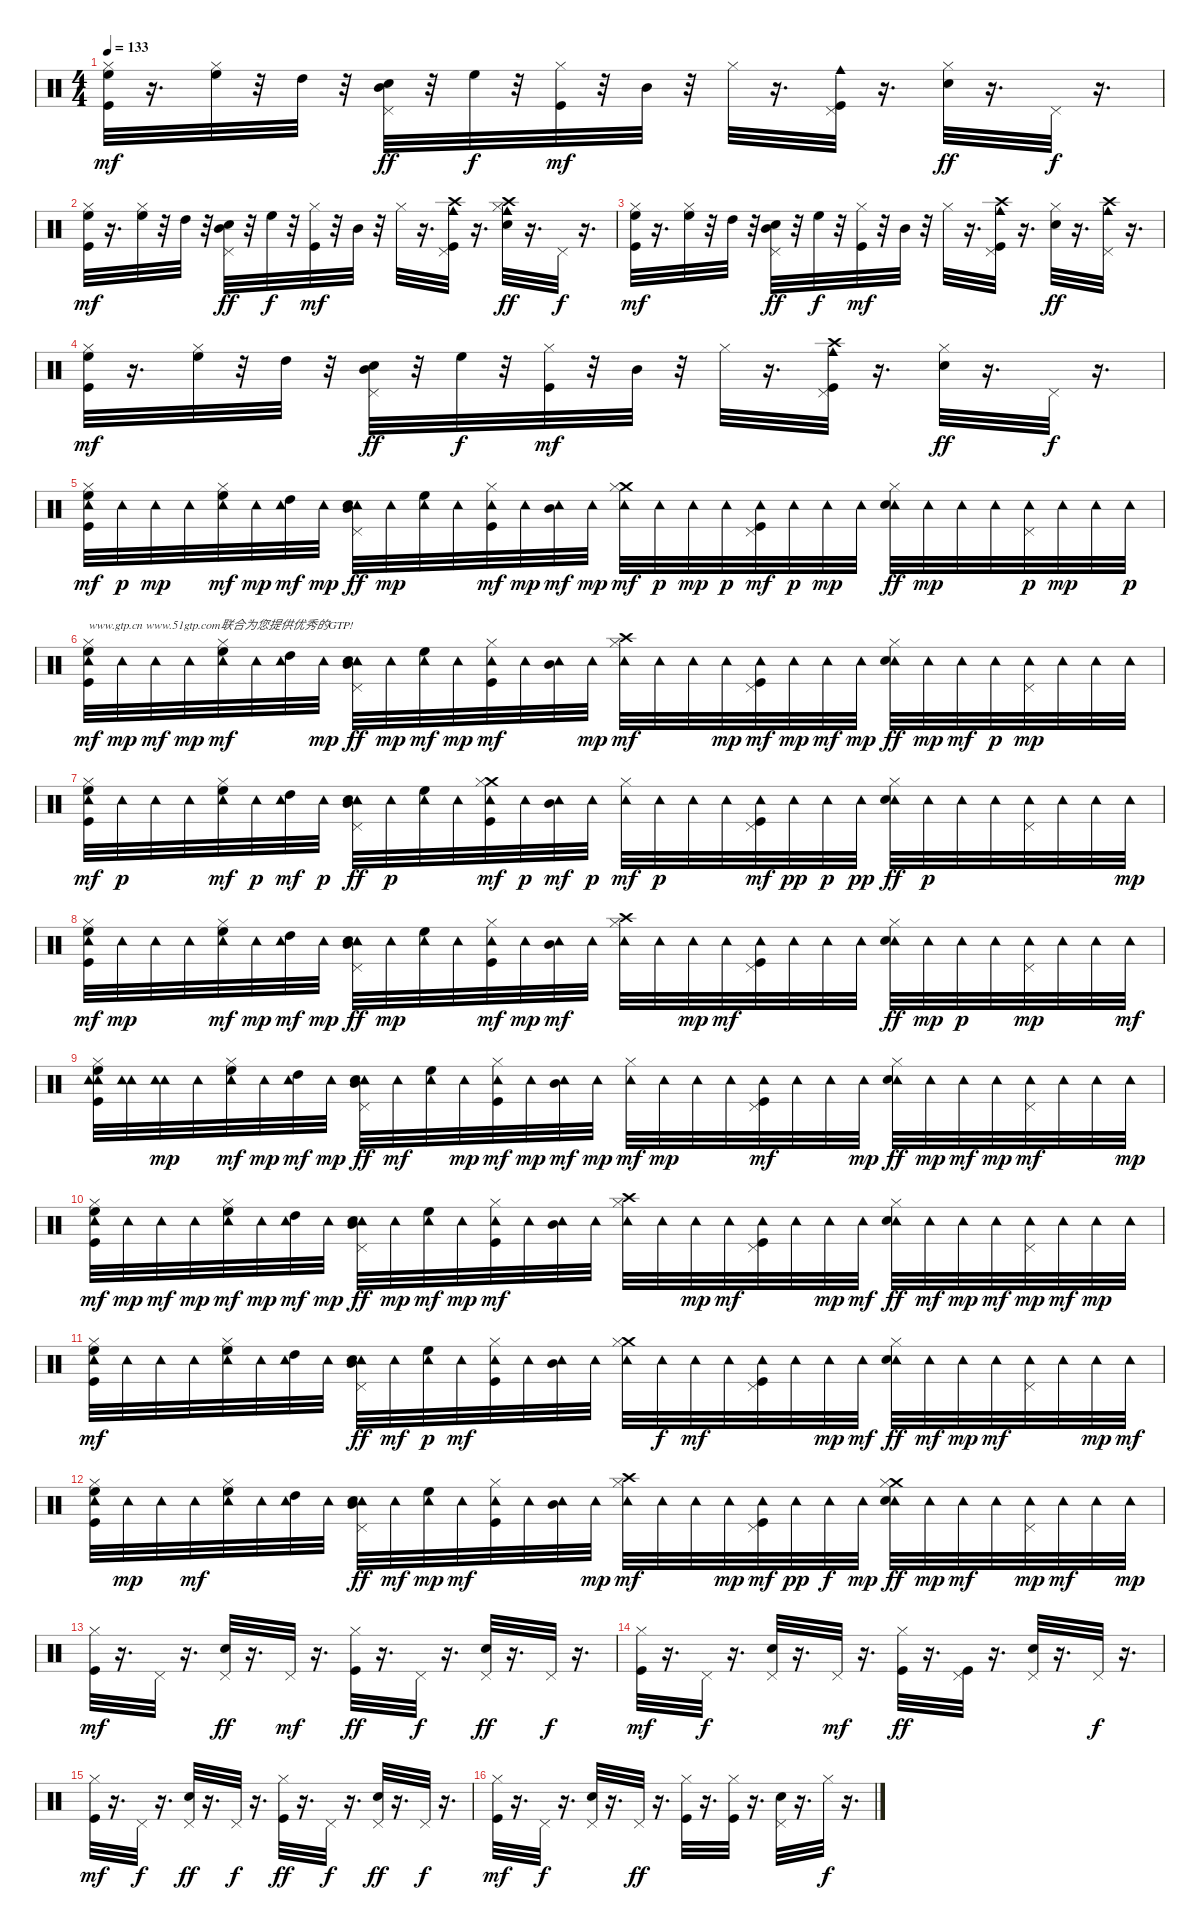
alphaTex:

\track "" {instrument percussion}
\staff {score}
\articulation defaults
\ts (4 4)
\tempo 133
\clef neutral
\ks c
("High Floor Tom (hit)" "Hi-Hat (closed)" "Kick (hit)").32{dy mf} r.16{d} ("High Floor Tom (hit)" "Hi-Hat (closed)").32 r.32 "High Tom (hit)".32 r.32 ("Mid Tom (hit)" "Pedal Hi-Hat (hit)" "Snare (hit) 2").32{dy ff} r.32 "High Floor Tom (hit)".32{dy f} r.32 ("Hi-Hat (closed)" "Kick (hit)").32{dy mf} r.32 "Mid Tom (hit)".32 r.32 "Hi-Hat (closed)".32 r.16{d} ("Cowbell medium (hit)" "Kick (hit)" "Pedal Hi-Hat (hit)").32 r.16{d} ("Hi-Hat (closed)" "Snare (hit) 2").32{dy ff} r.16{d} "Pedal Hi-Hat (hit)".32{dy f} r.16{d} |
("High Floor Tom (hit)" "Hi-Hat (closed)" "Kick (hit)").32{dy mf} r.16{d} ("High Floor Tom (hit)" "Hi-Hat (closed)").32 r.32 "High Tom (hit)".32 r.32 ("Mid Tom (hit)" "Pedal Hi-Hat (hit)" "Snare (hit) 2").32{dy ff} r.32 "High Floor Tom (hit)".32{dy f} r.32 ("Hi-Hat (closed)" "Kick (hit)").32{dy mf} r.32 "Mid Tom (hit)".32 r.32 "Hi-Hat (closed)".32 r.16{d} ("Cowbell medium (hit)" "Crash high (hit)" "Kick (hit)" "Pedal Hi-Hat (hit)").32 r.16{d} ("Crash high (hit)" "Cowbell medium (hit)" "Hi-Hat (closed)" "Snare (hit) 2").32{dy ff} r.16{d} "Pedal Hi-Hat (hit)".32{dy f} r.16{d} |
("High Floor Tom (hit)" "Hi-Hat (closed)" "Kick (hit)").32{dy mf} r.16{d} ("High Floor Tom (hit)" "Hi-Hat (closed)").32 r.32 "High Tom (hit)".32 r.32 ("Mid Tom (hit)" "Pedal Hi-Hat (hit)" "Snare (hit) 2").32{dy ff} r.32 "High Floor Tom (hit)".32{dy f} r.32 ("Hi-Hat (closed)" "Kick (hit)").32{dy mf} r.32 "Mid Tom (hit)".32 r.32 "Hi-Hat (closed)".32 r.16{d} ("Cowbell medium (hit)" "Crash high (hit)" "Kick (hit)" "Pedal Hi-Hat (hit)").32 r.16{d} ("Hi-Hat (closed)" "Snare (hit) 2").32{dy ff} r.16{d} ("Crash high (hit)" "Cowbell medium (hit)" "Pedal Hi-Hat (hit)").32 r.16{d} |
("High Floor Tom (hit)" "Hi-Hat (closed)" "Kick (hit)").32{dy mf} r.16{d} ("High Floor Tom (hit)" "Hi-Hat (closed)").32 r.32 "High Tom (hit)".32 r.32 ("Mid Tom (hit)" "Pedal Hi-Hat (hit)" "Snare (hit) 2").32{dy ff} r.32 "High Floor Tom (hit)".32{dy f} r.32 ("Hi-Hat (closed)" "Kick (hit)").32{dy mf} r.32 "Mid Tom (hit)".32 r.32 "Hi-Hat (closed)".32 r.16{d} ("Cowbell medium (hit)" "Crash high (hit)" "Kick (hit)" "Pedal Hi-Hat (hit)").32 r.16{d} ("Hi-Hat (closed)" "Snare (hit) 2").32{dy ff} r.16{d} "Pedal Hi-Hat (hit)".32{dy f} r.16{d} |
("Tambourine (hit)" "High Floor Tom (hit)" "Hi-Hat (closed)" "Kick (hit)").32{dy mf} "Tambourine (hit)".32{dy p} "Tambourine (hit)".32{dy mp} "Tambourine (hit)".32 ("Tambourine (hit)" "High Floor Tom (hit)" "Hi-Hat (closed)").32{dy mf} "Tambourine (hit)".32{dy mp} ("Tambourine (hit)" "High Tom (hit)").32{dy mf} "Tambourine (hit)".32{dy mp} ("Tambourine (hit)" "Mid Tom (hit)" "Pedal Hi-Hat (hit)" "Snare (hit) 2").32{dy ff} "Tambourine (hit)".32{dy mp} ("Tambourine (hit)" "High Floor Tom (hit)").32 "Tambourine (hit)".32 ("Tambourine (hit)" "Hi-Hat (closed)" "Kick (hit)").32{dy mf} "Tambourine (hit)".32{dy mp} ("Tambourine (hit)" "Mid Tom (hit)").32{dy mf} "Tambourine (hit)".32{dy mp} ("Tambourine (hit)" "Crash medium (hit)" "Hi-Hat (closed)").32{dy mf} "Tambourine (hit)".32{dy p} "Tambourine (hit)".32{dy mp} "Tambourine (hit)".32{dy p} ("Tambourine (hit)" "Kick (hit)" "Pedal Hi-Hat (hit)").32{dy mf} "Tambourine (hit)".32{dy p} "Tambourine (hit)".32{dy mp} "Tambourine (hit)".32 ("Tambourine (hit)" "Hi-Hat (closed)" "Snare (hit) 2").32{dy ff} "Tambourine (hit)".32{dy mp} "Tambourine (hit)".32 "Tambourine (hit)".32 ("Tambourine (hit)" "Pedal Hi-Hat (hit)").32{dy p} "Tambourine (hit)".32{dy mp} "Tambourine (hit)".32 "Tambourine (hit)".32{dy p} |
("Tambourine (hit)" "High Floor Tom (hit)" "Hi-Hat (closed)" "Kick (hit)").32{txt "www.gtp.cn www.51gtp.com联合为您提供优秀的GTP!" dy mf} "Tambourine (hit)".32{dy mp} "Tambourine (hit)".32{dy mf} "Tambourine (hit)".32{dy mp} ("Tambourine (hit)" "High Floor Tom (hit)" "Hi-Hat (closed)").32{dy mf} "Tambourine (hit)".32 ("Tambourine (hit)" "High Tom (hit)").32 "Tambourine (hit)".32{dy mp} ("Tambourine (hit)" "Mid Tom (hit)" "Pedal Hi-Hat (hit)" "Snare (hit) 2").32{dy ff} "Tambourine (hit)".32{dy mp} ("Tambourine (hit)" "High Floor Tom (hit)").32{dy mf} "Tambourine (hit)".32{dy mp} ("Tambourine (hit)" "Hi-Hat (closed)" "Kick (hit)").32{dy mf} "Tambourine (hit)".32 ("Tambourine (hit)" "Mid Tom (hit)").32 "Tambourine (hit)".32{dy mp} ("Tambourine (hit)" "Crash high (hit)" "Hi-Hat (closed)").32{dy mf} "Tambourine (hit)".32 "Tambourine (hit)".32 "Tambourine (hit)".32{dy mp} ("Tambourine (hit)" "Kick (hit)" "Pedal Hi-Hat (hit)").32{dy mf} "Tambourine (hit)".32{dy mp} "Tambourine (hit)".32{dy mf} "Tambourine (hit)".32{dy mp} ("Tambourine (hit)" "Hi-Hat (closed)" "Snare (hit) 2").32{dy ff} "Tambourine (hit)".32{dy mp} "Tambourine (hit)".32{dy mf} "Tambourine (hit)".32{dy p} ("Tambourine (hit)" "Pedal Hi-Hat (hit)").32{dy mp} "Tambourine (hit)".32 "Tambourine (hit)".32 "Tambourine (hit)".32 |
("Tambourine (hit)" "High Floor Tom (hit)" "Hi-Hat (closed)" "Kick (hit)").32{dy mf} "Tambourine (hit)".32{dy p} "Tambourine (hit)".32 "Tambourine (hit)".32 ("Tambourine (hit)" "High Floor Tom (hit)" "Hi-Hat (closed)").32{dy mf} "Tambourine (hit)".32{dy p} ("Tambourine (hit)" "High Tom (hit)").32{dy mf} "Tambourine (hit)".32{dy p} ("Tambourine (hit)" "Mid Tom (hit)" "Pedal Hi-Hat (hit)" "Snare (hit) 2").32{dy ff} "Tambourine (hit)".32{dy p} ("Tambourine (hit)" "High Floor Tom (hit)").32 "Tambourine (hit)".32 ("Tambourine (hit)" "Crash medium (hit)" "Hi-Hat (closed)" "Kick (hit)").32{dy mf} "Tambourine (hit)".32{dy p} ("Tambourine (hit)" "Mid Tom (hit)").32{dy mf} "Tambourine (hit)".32{dy p} ("Tambourine (hit)" "Hi-Hat (closed)").32{dy mf} "Tambourine (hit)".32{dy p} "Tambourine (hit)".32 "Tambourine (hit)".32 ("Tambourine (hit)" "Kick (hit)" "Pedal Hi-Hat (hit)").32{dy mf} "Tambourine (hit)".32{dy pp} "Tambourine (hit)".32{dy p} "Tambourine (hit)".32{dy pp} ("Tambourine (hit)" "Hi-Hat (closed)" "Snare (hit) 2").32{dy ff} "Tambourine (hit)".32{dy p} "Tambourine (hit)".32 "Tambourine (hit)".32 ("Tambourine (hit)" "Pedal Hi-Hat (hit)").32 "Tambourine (hit)".32 "Tambourine (hit)".32 "Tambourine (hit)".32{dy mp} |
("Tambourine (hit)" "High Floor Tom (hit)" "Hi-Hat (closed)" "Kick (hit)").32{dy mf} "Tambourine (hit)".32{dy mp} "Tambourine (hit)".32 "Tambourine (hit)".32 ("Tambourine (hit)" "High Floor Tom (hit)" "Hi-Hat (closed)").32{dy mf} "Tambourine (hit)".32{dy mp} ("Tambourine (hit)" "High Tom (hit)").32{dy mf} "Tambourine (hit)".32{dy mp} ("Tambourine (hit)" "Mid Tom (hit)" "Pedal Hi-Hat (hit)" "Snare (hit) 2").32{dy ff} "Tambourine (hit)".32{dy mp} ("Tambourine (hit)" "High Floor Tom (hit)").32 "Tambourine (hit)".32 ("Tambourine (hit)" "Hi-Hat (closed)" "Kick (hit)").32{dy mf} "Tambourine (hit)".32{dy mp} ("Tambourine (hit)" "Mid Tom (hit)").32{dy mf} "Tambourine (hit)".32 ("Tambourine (hit)" "Crash high (hit)" "Hi-Hat (closed)").32 "Tambourine (hit)".32 "Tambourine (hit)".32{dy mp} "Tambourine (hit)".32{dy mf} ("Tambourine (hit)" "Kick (hit)" "Pedal Hi-Hat (hit)").32 "Tambourine (hit)".32 "Tambourine (hit)".32 "Tambourine (hit)".32 ("Tambourine (hit)" "Hi-Hat (closed)" "Snare (hit) 2").32{dy ff} "Tambourine (hit)".32{dy mp} "Tambourine (hit)".32{dy p} "Tambourine (hit)".32 ("Tambourine (hit)" "Pedal Hi-Hat (hit)").32{dy mp} "Tambourine (hit)".32 "Tambourine (hit)".32 "Tambourine (hit)".32{dy mf} |
("Tambourine (hit)" "Tambourine (hit)" "High Floor Tom (hit)" "Hi-Hat (closed)" "Kick (hit)").32 ("Tambourine (hit)" "Tambourine (hit)").32 ("Tambourine (hit)" "Tambourine (hit)").32{dy mp} "Tambourine (hit)".32 ("Tambourine (hit)" "High Floor Tom (hit)" "Hi-Hat (closed)").32{dy mf} "Tambourine (hit)".32{dy mp} ("Tambourine (hit)" "High Tom (hit)").32{dy mf} "Tambourine (hit)".32{dy mp} ("Tambourine (hit)" "Mid Tom (hit)" "Pedal Hi-Hat (hit)" "Snare (hit) 2").32{dy ff} "Tambourine (hit)".32{dy mf} ("Tambourine (hit)" "High Floor Tom (hit)").32 "Tambourine (hit)".32{dy mp} ("Tambourine (hit)" "Hi-Hat (closed)" "Kick (hit)").32{dy mf} "Tambourine (hit)".32{dy mp} ("Tambourine (hit)" "Mid Tom (hit)").32{dy mf} "Tambourine (hit)".32{dy mp} ("Tambourine (hit)" "Hi-Hat (closed)").32{dy mf} "Tambourine (hit)".32{dy mp} "Tambourine (hit)".32 "Tambourine (hit)".32 ("Tambourine (hit)" "Kick (hit)" "Pedal Hi-Hat (hit)").32{dy mf} "Tambourine (hit)".32 "Tambourine (hit)".32 "Tambourine (hit)".32{dy mp} ("Tambourine (hit)" "Hi-Hat (closed)" "Snare (hit) 2").32{dy ff} "Tambourine (hit)".32{dy mp} "Tambourine (hit)".32{dy mf} "Tambourine (hit)".32{dy mp} ("Tambourine (hit)" "Pedal Hi-Hat (hit)").32{dy mf} "Tambourine (hit)".32 "Tambourine (hit)".32 "Tambourine (hit)".32{dy mp} |
("Tambourine (hit)" "High Floor Tom (hit)" "Hi-Hat (closed)" "Kick (hit)").32{dy mf} "Tambourine (hit)".32{dy mp} "Tambourine (hit)".32{dy mf} "Tambourine (hit)".32{dy mp} ("Tambourine (hit)" "High Floor Tom (hit)" "Hi-Hat (closed)").32{dy mf} "Tambourine (hit)".32{dy mp} ("Tambourine (hit)" "High Tom (hit)").32{dy mf} "Tambourine (hit)".32{dy mp} ("Tambourine (hit)" "Mid Tom (hit)" "Pedal Hi-Hat (hit)" "Snare (hit) 2").32{dy ff} "Tambourine (hit)".32{dy mp} ("Tambourine (hit)" "High Floor Tom (hit)").32{dy mf} "Tambourine (hit)".32{dy mp} ("Tambourine (hit)" "Hi-Hat (closed)" "Kick (hit)").32{dy mf} "Tambourine (hit)".32 ("Tambourine (hit)" "Mid Tom (hit)").32 "Tambourine (hit)".32 ("Tambourine (hit)" "Crash high (hit)" "Hi-Hat (closed)").32 "Tambourine (hit)".32 "Tambourine (hit)".32{dy mp} "Tambourine (hit)".32{dy mf} ("Tambourine (hit)" "Kick (hit)" "Pedal Hi-Hat (hit)").32 "Tambourine (hit)".32 "Tambourine (hit)".32{dy mp} "Tambourine (hit)".32{dy mf} ("Tambourine (hit)" "Hi-Hat (closed)" "Snare (hit) 2").32{dy ff} "Tambourine (hit)".32{dy mf} "Tambourine (hit)".32{dy mp} "Tambourine (hit)".32{dy mf} ("Tambourine (hit)" "Pedal Hi-Hat (hit)").32{dy mp} "Tambourine (hit)".32{dy mf} "Tambourine (hit)".32{dy mp} "Tambourine (hit)".32 |
("Tambourine (hit)" "High Floor Tom (hit)" "Hi-Hat (closed)" "Kick (hit)").32{dy mf} "Tambourine (hit)".32 "Tambourine (hit)".32 "Tambourine (hit)".32 ("Tambourine (hit)" "High Floor Tom (hit)" "Hi-Hat (closed)").32 "Tambourine (hit)".32 ("Tambourine (hit)" "High Tom (hit)").32 "Tambourine (hit)".32 ("Tambourine (hit)" "Mid Tom (hit)" "Pedal Hi-Hat (hit)" "Snare (hit) 2").32{dy ff} "Tambourine (hit)".32{dy mf} ("Tambourine (hit)" "High Floor Tom (hit)").32{dy p} "Tambourine (hit)".32{dy mf} ("Tambourine (hit)" "Hi-Hat (closed)" "Kick (hit)").32 "Tambourine (hit)".32 ("Tambourine (hit)" "Mid Tom (hit)").32 "Tambourine (hit)".32 ("Tambourine (hit)" "Crash medium (hit)" "Hi-Hat (closed)").32 "Tambourine (hit)".32{dy f} "Tambourine (hit)".32{dy mf} "Tambourine (hit)".32 ("Tambourine (hit)" "Kick (hit)" "Pedal Hi-Hat (hit)").32 "Tambourine (hit)".32 "Tambourine (hit)".32{dy mp} "Tambourine (hit)".32{dy mf} ("Tambourine (hit)" "Hi-Hat (closed)" "Snare (hit) 2").32{dy ff} "Tambourine (hit)".32{dy mf} "Tambourine (hit)".32{dy mp} "Tambourine (hit)".32{dy mf} ("Tambourine (hit)" "Pedal Hi-Hat (hit)").32 "Tambourine (hit)".32 "Tambourine (hit)".32{dy mp} "Tambourine (hit)".32{dy mf} |
("Tambourine (hit)" "High Floor Tom (hit)" "Hi-Hat (closed)" "Kick (hit)").32 "Tambourine (hit)".32{dy mp} "Tambourine (hit)".32 "Tambourine (hit)".32{dy mf} ("Tambourine (hit)" "High Floor Tom (hit)" "Hi-Hat (closed)").32 "Tambourine (hit)".32 ("Tambourine (hit)" "High Tom (hit)").32 "Tambourine (hit)".32 ("Tambourine (hit)" "Mid Tom (hit)" "Pedal Hi-Hat (hit)" "Snare (hit) 2").32{dy ff} "Tambourine (hit)".32{dy mf} ("Tambourine (hit)" "High Floor Tom (hit)").32{dy mp} "Tambourine (hit)".32{dy mf} ("Tambourine (hit)" "Hi-Hat (closed)" "Kick (hit)").32 "Tambourine (hit)".32 ("Tambourine (hit)" "Mid Tom (hit)").32 "Tambourine (hit)".32{dy mp} ("Tambourine (hit)" "Crash high (hit)" "Hi-Hat (closed)").32{dy mf} "Tambourine (hit)".32 "Tambourine (hit)".32 "Tambourine (hit)".32{dy mp} ("Tambourine (hit)" "Kick (hit)" "Pedal Hi-Hat (hit)").32{dy mf} "Tambourine (hit)".32{dy pp} "Tambourine (hit)".32{dy f} "Tambourine (hit)".32{dy mp} ("Tambourine (hit)" "Crash medium (hit)" "Hi-Hat (closed)" "Snare (hit) 2").32{dy ff} "Tambourine (hit)".32{dy mp} "Tambourine (hit)".32{dy mf} "Tambourine (hit)".32 ("Tambourine (hit)" "Pedal Hi-Hat (hit)").32{dy mp} "Tambourine (hit)".32{dy mf} "Tambourine (hit)".32 "Tambourine (hit)".32{dy mp} |
("Hi-Hat (closed)" "Kick (hit)").32{dy mf} r.16{d} "Pedal Hi-Hat (hit)".32 r.16{d} ("Pedal Hi-Hat (hit)" "Snare (hit) 2").32{dy ff} r.16{d} "Pedal Hi-Hat (hit)".32{dy mf} r.16{d} ("Hi-Hat (closed)" "Kick (hit)").32{dy ff} r.16{d} "Pedal Hi-Hat (hit)".32{dy f} r.16{d} ("Pedal Hi-Hat (hit)" "Snare (hit) 2").32{dy ff} r.16{d} "Pedal Hi-Hat (hit)".32{dy f} r.16{d} |
("Hi-Hat (closed)" "Kick (hit)").32{dy mf} r.16{d} "Pedal Hi-Hat (hit)".32{dy f} r.16{d} ("Pedal Hi-Hat (hit)" "Snare (hit) 2").32 r.16{d} "Pedal Hi-Hat (hit)".32{dy mf} r.16{d} ("Hi-Hat (closed)" "Kick (hit)").32{dy ff} r.16{d} ("Pedal Hi-Hat (hit)" "Kick (hit)").32 r.16{d} ("Pedal Hi-Hat (hit)" "Snare (hit) 2").32 r.16{d} "Pedal Hi-Hat (hit)".32{dy f} r.16{d} |
("Hi-Hat (closed)" "Kick (hit)").32{dy mf} r.16{d} "Pedal Hi-Hat (hit)".32{dy f} r.16{d} ("Pedal Hi-Hat (hit)" "Snare (hit) 2").32{dy ff} r.16{d} "Pedal Hi-Hat (hit)".32{dy f} r.16{d} ("Hi-Hat (closed)" "Kick (hit)").32{dy ff} r.16{d} "Pedal Hi-Hat (hit)".32{dy f} r.16{d} ("Pedal Hi-Hat (hit)" "Snare (hit) 2").32{dy ff} r.16{d} "Pedal Hi-Hat (hit)".32{dy f} r.16{d} |
("Hi-Hat (closed)" "Kick (hit)").32{dy mf} r.16{d} "Pedal Hi-Hat (hit)".32{dy f} r.16{d} ("Pedal Hi-Hat (hit)" "Snare (hit) 2").32 r.16{d} "Pedal Hi-Hat (hit)".32{dy ff} r.16{d} ("Hi-Hat (closed)" "Kick (hit)").32 r.16{d} ("Hi-Hat (closed)" "Kick (hit)").32 r.16{d} ("Pedal Hi-Hat (hit)" "Snare (hit) 2").32 r.16{d} "Hi-Hat (closed)".32{dy f} r.16{d}
